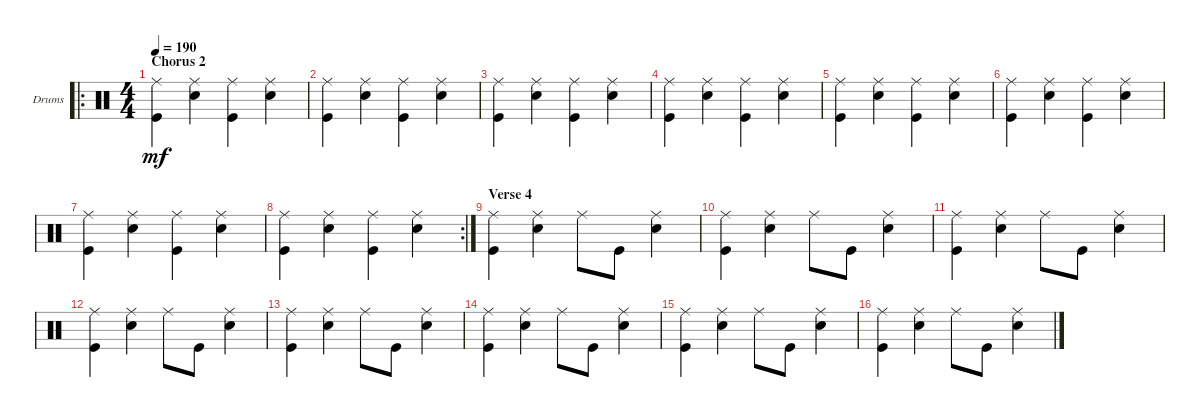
\defaultSystemsLayout 4
\bracketExtendMode groupsimilarinstruments
\firstSystemTrackNameOrientation horizontal
\otherSystemsTrackNameOrientation horizontal
\track ("Drumkit" "Drums") {instrument percussion}
\staff {score}
\articulation defaults
\ro
\ts (4 4)
\section ("" "Chorus 2")
\tempo 190
\clef neutral
\ks c
("Kick (hit)" "Ride (middle)").4{dy mf} ("Snare (hit) 2" "Ride (middle)").4 ("Ride (middle)" "Kick (hit)").4 ("Ride (middle)" "Snare (hit) 2").4 |
("Kick (hit)" "Ride (middle)").4 ("Snare (hit) 2" "Ride (middle)").4 ("Ride (middle)" "Kick (hit)").4 ("Ride (middle)" "Snare (hit) 2").4 |
("Kick (hit)" "Ride (middle)").4 ("Snare (hit) 2" "Ride (middle)").4 ("Ride (middle)" "Kick (hit)").4 ("Ride (middle)" "Snare (hit) 2").4 |
("Kick (hit)" "Ride (middle)").4 ("Snare (hit) 2" "Ride (middle)").4 ("Ride (middle)" "Kick (hit)").4 ("Ride (middle)" "Snare (hit) 2").4 |
("Kick (hit)" "Ride (middle)").4 ("Snare (hit) 2" "Ride (middle)").4 ("Ride (middle)" "Kick (hit)").4 ("Ride (middle)" "Snare (hit) 2").4 |
("Kick (hit)" "Ride (middle)").4 ("Snare (hit) 2" "Ride (middle)").4 ("Ride (middle)" "Kick (hit)").4 ("Ride (middle)" "Snare (hit) 2").4 |
("Kick (hit)" "Ride (middle)").4 ("Snare (hit) 2" "Ride (middle)").4 ("Ride (middle)" "Kick (hit)").4 ("Ride (middle)" "Snare (hit) 2").4 |
\rc 2
("Kick (hit)" "Ride (middle)").4 ("Snare (hit) 2" "Ride (middle)").4 ("Ride (middle)" "Kick (hit)").4 ("Ride (middle)" "Snare (hit) 2").4 |
\section ("" "Verse 4")
("Kick (hit)" "Ride (middle)").4 ("Snare (hit) 2" "Ride (middle)").4 "Ride (middle)".8 "Kick (hit)".8 ("Ride (middle)" "Snare (hit) 2").4 |
("Kick (hit)" "Ride (middle)").4 ("Snare (hit) 2" "Ride (middle)").4 "Ride (middle)".8 "Kick (hit)".8 ("Ride (middle)" "Snare (hit) 2").4 |
("Kick (hit)" "Ride (middle)").4 ("Snare (hit) 2" "Ride (middle)").4 "Ride (middle)".8 "Kick (hit)".8 ("Ride (middle)" "Snare (hit) 2").4 |
("Kick (hit)" "Ride (middle)").4 ("Snare (hit) 2" "Ride (middle)").4 "Ride (middle)".8 "Kick (hit)".8 ("Ride (middle)" "Snare (hit) 2").4 |
("Kick (hit)" "Ride (middle)").4 ("Snare (hit) 2" "Ride (middle)").4 "Ride (middle)".8 "Kick (hit)".8 ("Ride (middle)" "Snare (hit) 2").4 |
("Kick (hit)" "Ride (middle)").4 ("Snare (hit) 2" "Ride (middle)").4 "Ride (middle)".8 "Kick (hit)".8 ("Ride (middle)" "Snare (hit) 2").4 |
("Kick (hit)" "Ride (middle)").4 ("Snare (hit) 2" "Ride (middle)").4 "Ride (middle)".8 "Kick (hit)".8 ("Ride (middle)" "Snare (hit) 2").4 |
("Kick (hit)" "Ride (middle)").4 ("Snare (hit) 2" "Ride (middle)").4 "Ride (middle)".8 "Kick (hit)".8 ("Ride (middle)" "Snare (hit) 2").4
